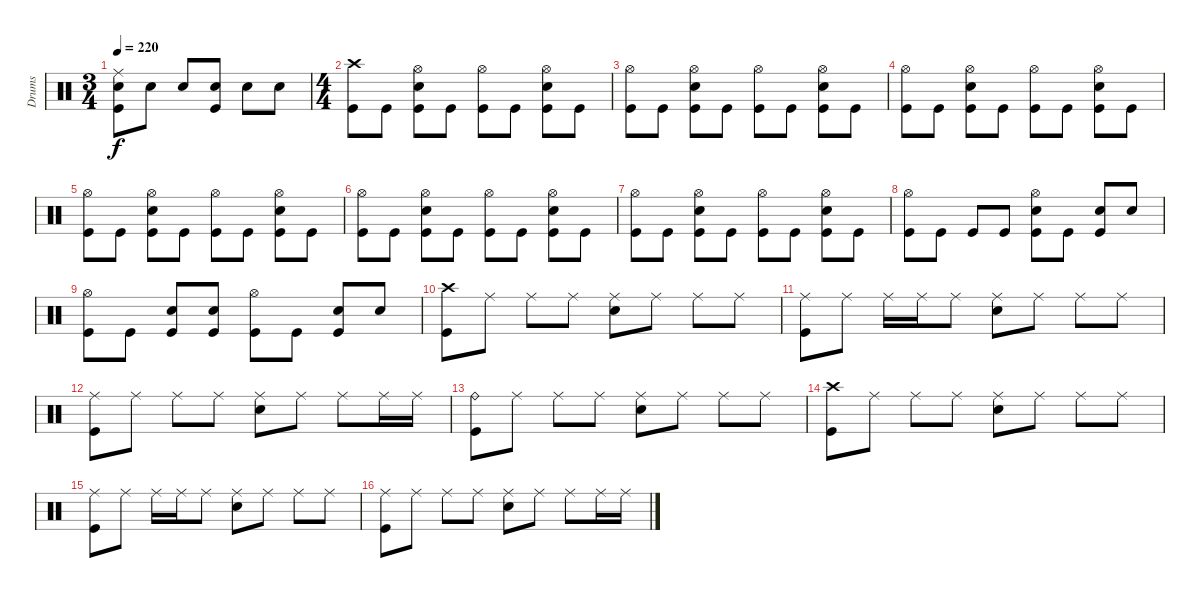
\track ("Drums" "Drums") {instrument percussion}
\staff {score}
\articulation defaults
\ts (3 4)
\tempo 220
\clef neutral
\ks c
("Ride (middle)" "Electric Snare (hit)" "Kick (hit)").8{dy f} "Electric Snare (hit)".8 "Electric Snare (hit)".8 ("Electric Snare (hit)" "Kick (hit)").8 "Electric Snare (hit)".8 "Electric Snare (hit)".8 |
\ts (4 4)
("Crash high (hit)" "Kick (hit)").8 "Kick (hit)".8 ("Hi-Hat (open)" "Electric Snare (hit)" "Kick (hit)").8 "Kick (hit)".8 ("Hi-Hat (open)" "Kick (hit)").8 "Kick (hit)".8 ("Hi-Hat (open)" "Electric Snare (hit)" "Kick (hit)").8 "Kick (hit)".8 |
("Hi-Hat (open)" "Kick (hit)").8 "Kick (hit)".8 ("Hi-Hat (open)" "Electric Snare (hit)" "Kick (hit)").8 "Kick (hit)".8 ("Hi-Hat (open)" "Kick (hit)").8 "Kick (hit)".8 ("Hi-Hat (open)" "Electric Snare (hit)" "Kick (hit)").8 "Kick (hit)".8 |
("Hi-Hat (open)" "Kick (hit)").8 "Kick (hit)".8 ("Hi-Hat (open)" "Electric Snare (hit)" "Kick (hit)").8 "Kick (hit)".8 ("Hi-Hat (open)" "Kick (hit)").8 "Kick (hit)".8 ("Hi-Hat (open)" "Electric Snare (hit)" "Kick (hit)").8 "Kick (hit)".8 |
("Hi-Hat (open)" "Kick (hit)").8 "Kick (hit)".8 ("Hi-Hat (open)" "Electric Snare (hit)" "Kick (hit)").8 "Kick (hit)".8 ("Hi-Hat (open)" "Kick (hit)").8 "Kick (hit)".8 ("Hi-Hat (open)" "Electric Snare (hit)" "Kick (hit)").8 "Kick (hit)".8 |
("Hi-Hat (open)" "Kick (hit)").8 "Kick (hit)".8 ("Hi-Hat (open)" "Electric Snare (hit)" "Kick (hit)").8 "Kick (hit)".8 ("Hi-Hat (open)" "Kick (hit)").8 "Kick (hit)".8 ("Hi-Hat (open)" "Electric Snare (hit)" "Kick (hit)").8 "Kick (hit)".8 |
("Hi-Hat (open)" "Kick (hit)").8 "Kick (hit)".8 ("Hi-Hat (open)" "Electric Snare (hit)" "Kick (hit)").8 "Kick (hit)".8 ("Hi-Hat (open)" "Kick (hit)").8 "Kick (hit)".8 ("Hi-Hat (open)" "Electric Snare (hit)" "Kick (hit)").8 "Kick (hit)".8 |
("Hi-Hat (open)" "Kick (hit)").8 "Kick (hit)".8 "Kick (hit)".8 "Kick (hit)".8 ("Hi-Hat (open)" "Electric Snare (hit)" "Kick (hit)").8 "Kick (hit)".8 ("Electric Snare (hit)" "Kick (hit)").8 "Electric Snare (hit)".8 |
("Hi-Hat (open)" "Kick (hit)").8 "Kick (hit)".8 ("Electric Snare (hit)" "Kick (hit)").8 ("Electric Snare (hit)" "Kick (hit)").8 ("Hi-Hat (open)" "Kick (hit)").8 "Kick (hit)".8 ("Electric Snare (hit)" "Kick (hit)").8 "Snare (hit)".8 |
("Crash high (hit)" "Kick (hit)").8 "Ride (middle)".8 "Ride (middle)".8 "Ride (middle)".8 ("Ride (middle)" "Snare (hit) 2").8 "Ride (middle)".8 "Ride (middle)".8 "Ride (middle)".8 |
("Ride (middle)" "Kick (hit)").8 "Ride (middle)".8 "Ride (middle)".16 "Ride (middle)".16 "Ride (middle)".8 ("Ride (middle)" "Snare (hit) 2").8 "Ride (middle)".8 "Ride (middle)".8 "Ride (middle)".8 |
("Ride (middle)" "Kick (hit)").8 "Ride (middle)".8 "Ride (middle)".8 "Ride (middle)".8 ("Ride (middle)" "Snare (hit) 2").8 "Ride (middle)".8 "Ride (middle)".8 "Ride (middle)".16 "Ride (middle)".16 |
("Ride (bell)" "Kick (hit)").8 "Ride (middle)".8 "Ride (middle)".8 "Ride (middle)".8 ("Ride (middle)" "Snare (hit) 2").8 "Ride (middle)".8 "Ride (middle)".8 "Ride (middle)".8 |
("Crash high (hit)" "Kick (hit)").8 "Ride (middle)".8 "Ride (middle)".8 "Ride (middle)".8 ("Ride (middle)" "Snare (hit) 2").8 "Ride (middle)".8 "Ride (middle)".8 "Ride (middle)".8 |
("Ride (middle)" "Kick (hit)").8 "Ride (middle)".8 "Ride (middle)".16 "Ride (middle)".16 "Ride (middle)".8 ("Ride (middle)" "Snare (hit) 2").8 "Ride (middle)".8 "Ride (middle)".8 "Ride (middle)".8 |
("Ride (middle)" "Kick (hit)").8 "Ride (middle)".8 "Ride (middle)".8 "Ride (middle)".8 ("Ride (middle)" "Snare (hit) 2").8 "Ride (middle)".8 "Ride (middle)".8 "Ride (middle)".16 "Ride (middle)".16
